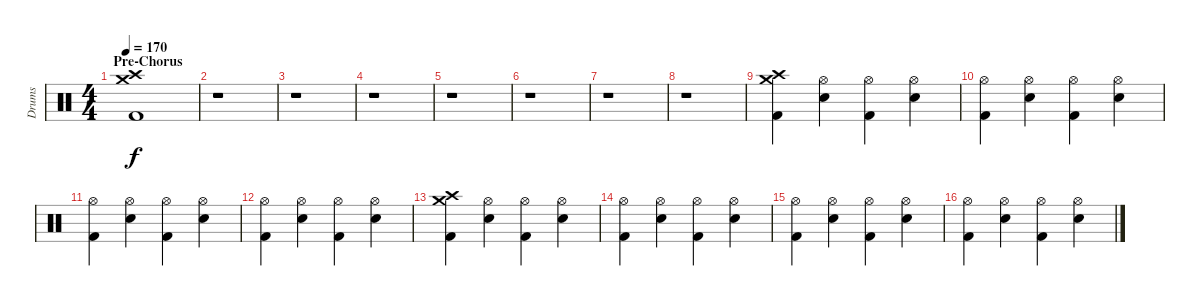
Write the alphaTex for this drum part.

\track ("Drums" "Drums") {instrument percussion}
\staff {score}
\articulation defaults
\ts (4 4)
\section ("" "Pre-Chorus")
\tempo 170
\clef neutral
\ks c
("Crash high (hit)" "Crash medium (hit)" "Kick (hit) 2").1{dy f} |
r.1 |
r.1 |
r.1 |
r.1 |
r.1 |
r.1 |
r.1 |
("Crash high (hit)" "Crash medium (hit)" "Kick (hit) 2").4 ("Hi-Hat (open)" "Snare (hit) 2").4 ("Hi-Hat (open)" "Kick (hit) 2").4 ("Hi-Hat (open)" "Snare (hit) 2").4 |
("Hi-Hat (open)" "Kick (hit) 2").4 ("Hi-Hat (open)" "Snare (hit) 2").4 ("Hi-Hat (open)" "Kick (hit) 2").4 ("Hi-Hat (open)" "Snare (hit) 2").4 |
("Hi-Hat (open)" "Kick (hit) 2").4 ("Hi-Hat (open)" "Snare (hit) 2").4 ("Hi-Hat (open)" "Kick (hit) 2").4 ("Hi-Hat (open)" "Snare (hit) 2").4 |
("Hi-Hat (open)" "Kick (hit) 2").4 ("Hi-Hat (open)" "Snare (hit) 2").4 ("Hi-Hat (open)" "Kick (hit) 2").4 ("Hi-Hat (open)" "Snare (hit) 2").4 |
("Crash high (hit)" "Crash medium (hit)" "Kick (hit) 2").4 ("Hi-Hat (open)" "Snare (hit) 2").4 ("Hi-Hat (open)" "Kick (hit) 2").4 ("Hi-Hat (open)" "Snare (hit) 2").4 |
("Hi-Hat (open)" "Kick (hit) 2").4 ("Hi-Hat (open)" "Snare (hit) 2").4 ("Hi-Hat (open)" "Kick (hit) 2").4 ("Hi-Hat (open)" "Snare (hit) 2").4 |
("Hi-Hat (open)" "Kick (hit) 2").4 ("Hi-Hat (open)" "Snare (hit) 2").4 ("Hi-Hat (open)" "Kick (hit) 2").4 ("Hi-Hat (open)" "Snare (hit) 2").4 |
("Hi-Hat (open)" "Kick (hit) 2").4 ("Hi-Hat (open)" "Snare (hit) 2").4 ("Hi-Hat (open)" "Kick (hit) 2").4 ("Hi-Hat (open)" "Snare (hit) 2").4
